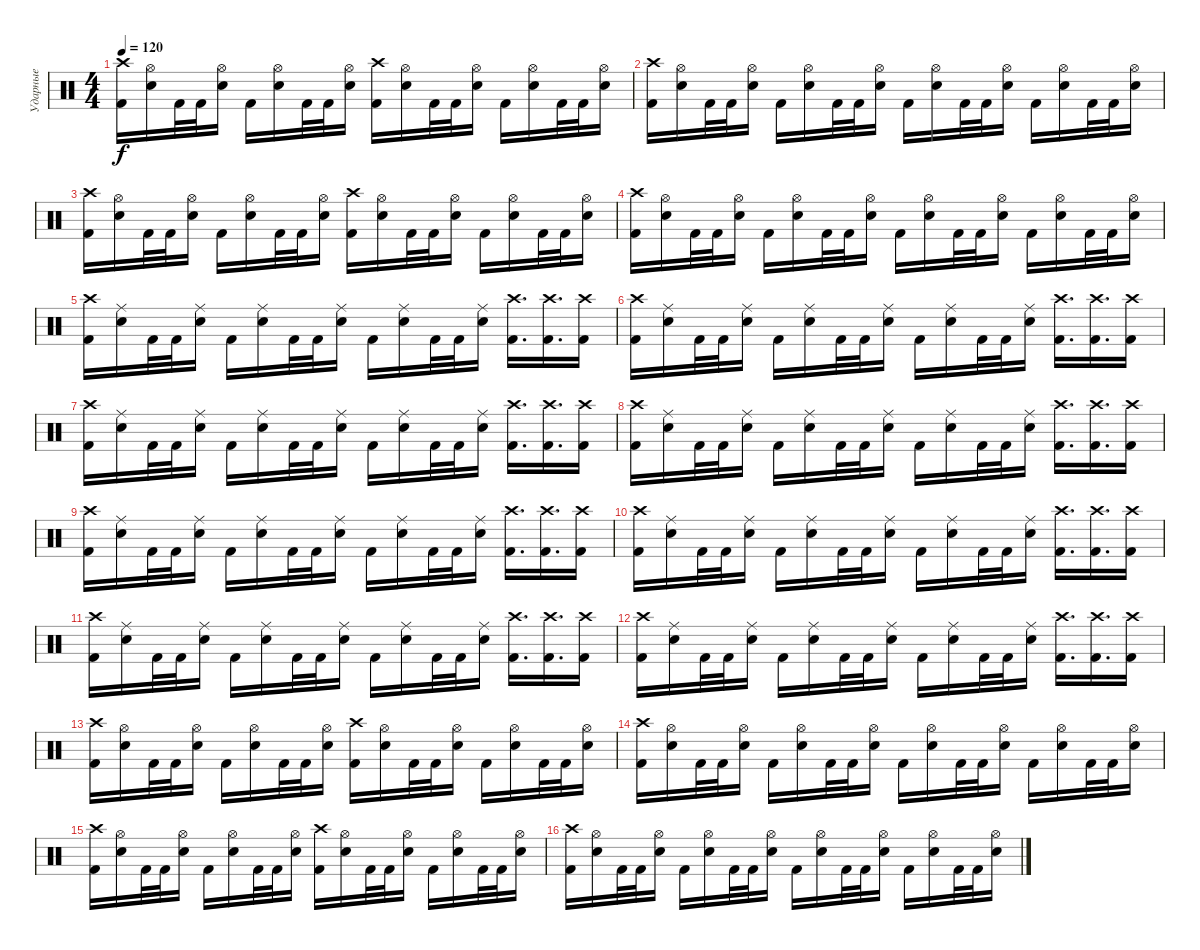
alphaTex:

\track ("Ударные" "Ударные") {instrument percussion}
\staff {score}
\articulation defaults
\ts (4 4)
\tempo 120
\clef neutral
\ks c
("Kick (hit) 2" "Crash high (hit)").16{dy f} ("Electric Snare (hit)" "Hi-Hat (open)").16 "Kick (hit) 2".32 "Kick (hit) 2".32 ("Electric Snare (hit)" "Hi-Hat (open)").16 "Kick (hit) 2".16 ("Electric Snare (hit)" "Hi-Hat (open)").16 "Kick (hit) 2".32 "Kick (hit) 2".32 ("Electric Snare (hit)" "Hi-Hat (open)").16 ("Kick (hit) 2" "Crash high (hit)").16 ("Electric Snare (hit)" "Hi-Hat (open)").16 "Kick (hit) 2".32 "Kick (hit) 2".32 ("Electric Snare (hit)" "Hi-Hat (open)").16 "Kick (hit) 2".16 ("Electric Snare (hit)" "Hi-Hat (open)").16 "Kick (hit) 2".32 "Kick (hit) 2".32 ("Electric Snare (hit)" "Hi-Hat (open)").16 |
("Kick (hit) 2" "Crash high (hit)").16 ("Electric Snare (hit)" "Hi-Hat (open)").16 "Kick (hit) 2".32 "Kick (hit) 2".32 ("Electric Snare (hit)" "Hi-Hat (open)").16 "Kick (hit) 2".16 ("Electric Snare (hit)" "Hi-Hat (open)").16 "Kick (hit) 2".32 "Kick (hit) 2".32 ("Electric Snare (hit)" "Hi-Hat (open)").16 "Kick (hit) 2".16 ("Electric Snare (hit)" "Hi-Hat (open)").16 "Kick (hit) 2".32 "Kick (hit) 2".32 ("Electric Snare (hit)" "Hi-Hat (open)").16 "Kick (hit) 2".16 ("Electric Snare (hit)" "Hi-Hat (open)").16 "Kick (hit) 2".32 "Kick (hit) 2".32 ("Electric Snare (hit)" "Hi-Hat (open)").16 |
("Kick (hit) 2" "Crash high (hit)").16 ("Electric Snare (hit)" "Hi-Hat (open)").16 "Kick (hit) 2".32 "Kick (hit) 2".32 ("Electric Snare (hit)" "Hi-Hat (open)").16 "Kick (hit) 2".16 ("Electric Snare (hit)" "Hi-Hat (open)").16 "Kick (hit) 2".32 "Kick (hit) 2".32 ("Electric Snare (hit)" "Hi-Hat (open)").16 ("Kick (hit) 2" "Crash high (hit)").16 ("Electric Snare (hit)" "Hi-Hat (open)").16 "Kick (hit) 2".32 "Kick (hit) 2".32 ("Electric Snare (hit)" "Hi-Hat (open)").16 "Kick (hit) 2".16 ("Electric Snare (hit)" "Hi-Hat (open)").16 "Kick (hit) 2".32 "Kick (hit) 2".32 ("Electric Snare (hit)" "Hi-Hat (open)").16 |
("Kick (hit) 2" "Crash high (hit)").16 ("Electric Snare (hit)" "Hi-Hat (open)").16 "Kick (hit) 2".32 "Kick (hit) 2".32 ("Electric Snare (hit)" "Hi-Hat (open)").16 "Kick (hit) 2".16 ("Electric Snare (hit)" "Hi-Hat (open)").16 "Kick (hit) 2".32 "Kick (hit) 2".32 ("Electric Snare (hit)" "Hi-Hat (open)").16 "Kick (hit) 2".16 ("Electric Snare (hit)" "Hi-Hat (open)").16 "Kick (hit) 2".32 "Kick (hit) 2".32 ("Electric Snare (hit)" "Hi-Hat (open)").16 "Kick (hit) 2".16 ("Electric Snare (hit)" "Hi-Hat (open)").16 "Kick (hit) 2".32 "Kick (hit) 2".32 ("Electric Snare (hit)" "Hi-Hat (open)").16 |
("Kick (hit) 2" "Crash high (hit)").16 ("Electric Snare (hit)" "Ride (middle)").16 "Kick (hit) 2".32 "Kick (hit) 2".32 ("Electric Snare (hit)" "Ride (middle)").16 "Kick (hit) 2".16 ("Electric Snare (hit)" "Ride (middle)").16 "Kick (hit) 2".32 "Kick (hit) 2".32 ("Electric Snare (hit)" "Ride (middle)").16 "Kick (hit) 2".16 ("Electric Snare (hit)" "Ride (middle)").16 "Kick (hit) 2".32 "Kick (hit) 2".32 ("Electric Snare (hit)" "Ride (middle)").16 ("Kick (hit) 2" "Crash high (hit)").16{d} ("Kick (hit) 2" "Crash high (hit)").16{d} ("Kick (hit) 2" "Crash high (hit)").16 |
("Kick (hit) 2" "Crash high (hit)").16 ("Electric Snare (hit)" "Ride (middle)").16 "Kick (hit) 2".32 "Kick (hit) 2".32 ("Electric Snare (hit)" "Ride (middle)").16 "Kick (hit) 2".16 ("Electric Snare (hit)" "Ride (middle)").16 "Kick (hit) 2".32 "Kick (hit) 2".32 ("Electric Snare (hit)" "Ride (middle)").16 "Kick (hit) 2".16 ("Electric Snare (hit)" "Ride (middle)").16 "Kick (hit) 2".32 "Kick (hit) 2".32 ("Electric Snare (hit)" "Ride (middle)").16 ("Kick (hit) 2" "Crash high (hit)").16{d} ("Kick (hit) 2" "Crash high (hit)").16{d} ("Kick (hit) 2" "Crash high (hit)").16 |
("Kick (hit) 2" "Crash high (hit)").16 ("Electric Snare (hit)" "Ride (middle)").16 "Kick (hit) 2".32 "Kick (hit) 2".32 ("Electric Snare (hit)" "Ride (middle)").16 "Kick (hit) 2".16 ("Electric Snare (hit)" "Ride (middle)").16 "Kick (hit) 2".32 "Kick (hit) 2".32 ("Electric Snare (hit)" "Ride (middle)").16 "Kick (hit) 2".16 ("Electric Snare (hit)" "Ride (middle)").16 "Kick (hit) 2".32 "Kick (hit) 2".32 ("Electric Snare (hit)" "Ride (middle)").16 ("Kick (hit) 2" "Crash high (hit)").16{d} ("Kick (hit) 2" "Crash high (hit)").16{d} ("Kick (hit) 2" "Crash high (hit)").16 |
("Kick (hit) 2" "Crash high (hit)").16 ("Electric Snare (hit)" "Ride (middle)").16 "Kick (hit) 2".32 "Kick (hit) 2".32 ("Electric Snare (hit)" "Ride (middle)").16 "Kick (hit) 2".16 ("Electric Snare (hit)" "Ride (middle)").16 "Kick (hit) 2".32 "Kick (hit) 2".32 ("Electric Snare (hit)" "Ride (middle)").16 "Kick (hit) 2".16 ("Electric Snare (hit)" "Ride (middle)").16 "Kick (hit) 2".32 "Kick (hit) 2".32 ("Electric Snare (hit)" "Ride (middle)").16 ("Kick (hit) 2" "Crash high (hit)").16{d} ("Kick (hit) 2" "Crash high (hit)").16{d} ("Kick (hit) 2" "Crash high (hit)").16 |
("Kick (hit) 2" "Crash high (hit)").16 ("Electric Snare (hit)" "Ride (middle)").16 "Kick (hit) 2".32 "Kick (hit) 2".32 ("Electric Snare (hit)" "Ride (middle)").16 "Kick (hit) 2".16 ("Electric Snare (hit)" "Ride (middle)").16 "Kick (hit) 2".32 "Kick (hit) 2".32 ("Electric Snare (hit)" "Ride (middle)").16 "Kick (hit) 2".16 ("Electric Snare (hit)" "Ride (middle)").16 "Kick (hit) 2".32 "Kick (hit) 2".32 ("Electric Snare (hit)" "Ride (middle)").16 ("Kick (hit) 2" "Crash high (hit)").16{d} ("Kick (hit) 2" "Crash high (hit)").16{d} ("Kick (hit) 2" "Crash high (hit)").16 |
("Kick (hit) 2" "Crash high (hit)").16 ("Electric Snare (hit)" "Ride (middle)").16 "Kick (hit) 2".32 "Kick (hit) 2".32 ("Electric Snare (hit)" "Ride (middle)").16 "Kick (hit) 2".16 ("Electric Snare (hit)" "Ride (middle)").16 "Kick (hit) 2".32 "Kick (hit) 2".32 ("Electric Snare (hit)" "Ride (middle)").16 "Kick (hit) 2".16 ("Electric Snare (hit)" "Ride (middle)").16 "Kick (hit) 2".32 "Kick (hit) 2".32 ("Electric Snare (hit)" "Ride (middle)").16 ("Kick (hit) 2" "Crash high (hit)").16{d} ("Kick (hit) 2" "Crash high (hit)").16{d} ("Kick (hit) 2" "Crash high (hit)").16 |
("Kick (hit) 2" "Crash high (hit)").16 ("Electric Snare (hit)" "Ride (middle)").16 "Kick (hit) 2".32 "Kick (hit) 2".32 ("Electric Snare (hit)" "Ride (middle)").16 "Kick (hit) 2".16 ("Electric Snare (hit)" "Ride (middle)").16 "Kick (hit) 2".32 "Kick (hit) 2".32 ("Electric Snare (hit)" "Ride (middle)").16 "Kick (hit) 2".16 ("Electric Snare (hit)" "Ride (middle)").16 "Kick (hit) 2".32 "Kick (hit) 2".32 ("Electric Snare (hit)" "Ride (middle)").16 ("Kick (hit) 2" "Crash high (hit)").16{d} ("Kick (hit) 2" "Crash high (hit)").16{d} ("Kick (hit) 2" "Crash high (hit)").16 |
("Kick (hit) 2" "Crash high (hit)").16 ("Electric Snare (hit)" "Ride (middle)").16 "Kick (hit) 2".32 "Kick (hit) 2".32 ("Electric Snare (hit)" "Ride (middle)").16 "Kick (hit) 2".16 ("Electric Snare (hit)" "Ride (middle)").16 "Kick (hit) 2".32 "Kick (hit) 2".32 ("Electric Snare (hit)" "Ride (middle)").16 "Kick (hit) 2".16 ("Electric Snare (hit)" "Ride (middle)").16 "Kick (hit) 2".32 "Kick (hit) 2".32 ("Electric Snare (hit)" "Ride (middle)").16 ("Kick (hit) 2" "Crash high (hit)").16{d} ("Kick (hit) 2" "Crash high (hit)").16{d} ("Kick (hit) 2" "Crash high (hit)").16 |
("Kick (hit) 2" "Crash high (hit)").16 ("Electric Snare (hit)" "Hi-Hat (open)").16 "Kick (hit) 2".32 "Kick (hit) 2".32 ("Electric Snare (hit)" "Hi-Hat (open)").16 "Kick (hit) 2".16 ("Electric Snare (hit)" "Hi-Hat (open)").16 "Kick (hit) 2".32 "Kick (hit) 2".32 ("Electric Snare (hit)" "Hi-Hat (open)").16 ("Kick (hit) 2" "Crash high (hit)").16 ("Electric Snare (hit)" "Hi-Hat (open)").16 "Kick (hit) 2".32 "Kick (hit) 2".32 ("Electric Snare (hit)" "Hi-Hat (open)").16 "Kick (hit) 2".16 ("Electric Snare (hit)" "Hi-Hat (open)").16 "Kick (hit) 2".32 "Kick (hit) 2".32 ("Electric Snare (hit)" "Hi-Hat (open)").16 |
("Kick (hit) 2" "Crash high (hit)").16 ("Electric Snare (hit)" "Hi-Hat (open)").16 "Kick (hit) 2".32 "Kick (hit) 2".32 ("Electric Snare (hit)" "Hi-Hat (open)").16 "Kick (hit) 2".16 ("Electric Snare (hit)" "Hi-Hat (open)").16 "Kick (hit) 2".32 "Kick (hit) 2".32 ("Electric Snare (hit)" "Hi-Hat (open)").16 "Kick (hit) 2".16 ("Electric Snare (hit)" "Hi-Hat (open)").16 "Kick (hit) 2".32 "Kick (hit) 2".32 ("Electric Snare (hit)" "Hi-Hat (open)").16 "Kick (hit) 2".16 ("Electric Snare (hit)" "Hi-Hat (open)").16 "Kick (hit) 2".32 "Kick (hit) 2".32 ("Electric Snare (hit)" "Hi-Hat (open)").16 |
("Kick (hit) 2" "Crash high (hit)").16 ("Electric Snare (hit)" "Hi-Hat (open)").16 "Kick (hit) 2".32 "Kick (hit) 2".32 ("Electric Snare (hit)" "Hi-Hat (open)").16 "Kick (hit) 2".16 ("Electric Snare (hit)" "Hi-Hat (open)").16 "Kick (hit) 2".32 "Kick (hit) 2".32 ("Electric Snare (hit)" "Hi-Hat (open)").16 ("Kick (hit) 2" "Crash high (hit)").16 ("Electric Snare (hit)" "Hi-Hat (open)").16 "Kick (hit) 2".32 "Kick (hit) 2".32 ("Electric Snare (hit)" "Hi-Hat (open)").16 "Kick (hit) 2".16 ("Electric Snare (hit)" "Hi-Hat (open)").16 "Kick (hit) 2".32 "Kick (hit) 2".32 ("Electric Snare (hit)" "Hi-Hat (open)").16 |
("Kick (hit) 2" "Crash high (hit)").16 ("Electric Snare (hit)" "Hi-Hat (open)").16 "Kick (hit) 2".32 "Kick (hit) 2".32 ("Electric Snare (hit)" "Hi-Hat (open)").16 "Kick (hit) 2".16 ("Electric Snare (hit)" "Hi-Hat (open)").16 "Kick (hit) 2".32 "Kick (hit) 2".32 ("Electric Snare (hit)" "Hi-Hat (open)").16 "Kick (hit) 2".16 ("Electric Snare (hit)" "Hi-Hat (open)").16 "Kick (hit) 2".32 "Kick (hit) 2".32 ("Electric Snare (hit)" "Hi-Hat (open)").16 "Kick (hit) 2".16 ("Electric Snare (hit)" "Hi-Hat (open)").16 "Kick (hit) 2".32 "Kick (hit) 2".32 ("Electric Snare (hit)" "Hi-Hat (open)").16
